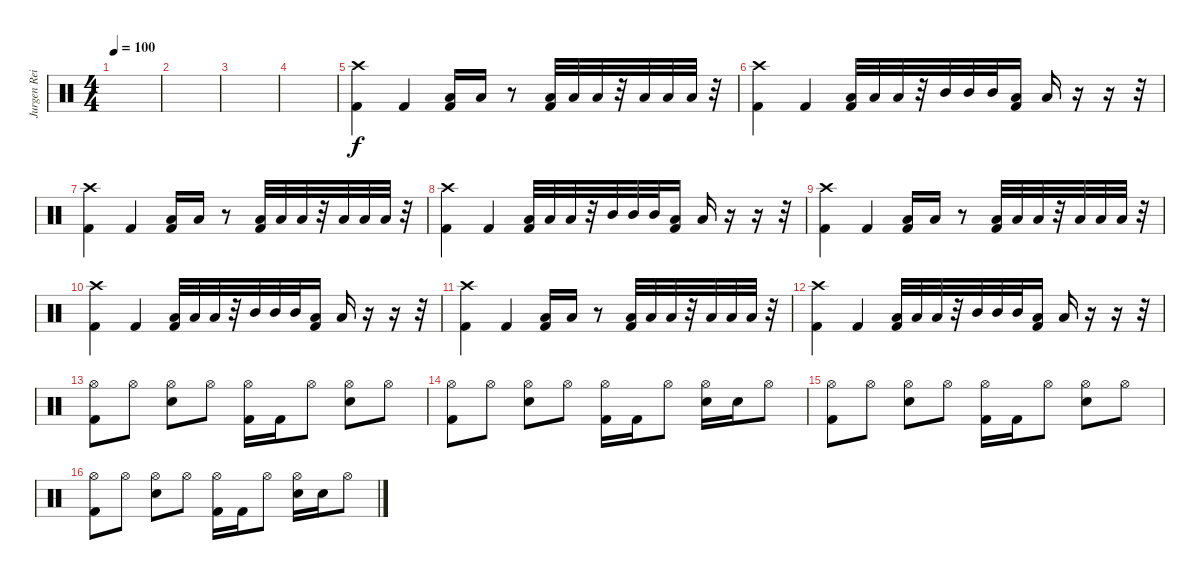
\track ("Jurgen Reil" "Jurgen Rei") {instrument percussion}
\staff {score}
\articulation defaults
\ts (4 4)
\tempo 100
\clef neutral
\ks c
|
|
|
|
("Crash high (hit)" "Kick (hit) 2").4 "Kick (hit) 2".4 ("Low Tom (hit)" "Kick (hit) 2").16 "Low Tom (hit)".16 r.8 ("Low Tom (hit)" "Kick (hit) 2").32 "Low Tom (hit)".32 "Low Tom (hit)".32 r.32 "Low Tom (hit)".32 "Low Tom (hit)".32 "Low Tom (hit)".32 r.32 |
("Crash high (hit)" "Kick (hit) 2").4 "Kick (hit) 2".4 ("Low Tom (hit)" "Kick (hit) 2").32 "Low Tom (hit)".32 "Low Tom (hit)".32 r.32 "Mid Tom (hit)".32 "Mid Tom (hit)".32 "Mid Tom (hit)".32 ("Low Tom (hit)" "Kick (hit) 2").16 "Low Tom (hit)".16 r.16 r.16 r.32 |
("Crash high (hit)" "Kick (hit) 2").4 "Kick (hit) 2".4 ("Low Tom (hit)" "Kick (hit) 2").16 "Low Tom (hit)".16 r.8 ("Low Tom (hit)" "Kick (hit) 2").32 "Low Tom (hit)".32 "Low Tom (hit)".32 r.32 "Low Tom (hit)".32 "Low Tom (hit)".32 "Low Tom (hit)".32 r.32 |
("Crash high (hit)" "Kick (hit) 2").4 "Kick (hit) 2".4 ("Low Tom (hit)" "Kick (hit) 2").32 "Low Tom (hit)".32 "Low Tom (hit)".32 r.32 "Mid Tom (hit)".32 "Mid Tom (hit)".32 "Mid Tom (hit)".32 ("Low Tom (hit)" "Kick (hit) 2").16 "Low Tom (hit)".16 r.16 r.16 r.32 |
("Crash high (hit)" "Kick (hit) 2").4 "Kick (hit) 2".4 ("Low Tom (hit)" "Kick (hit) 2").16 "Low Tom (hit)".16 r.8 ("Low Tom (hit)" "Kick (hit) 2").32 "Low Tom (hit)".32 "Low Tom (hit)".32 r.32 "Low Tom (hit)".32 "Low Tom (hit)".32 "Low Tom (hit)".32 r.32 |
("Crash high (hit)" "Kick (hit) 2").4 "Kick (hit) 2".4 ("Low Tom (hit)" "Kick (hit) 2").32 "Low Tom (hit)".32 "Low Tom (hit)".32 r.32 "Mid Tom (hit)".32 "Mid Tom (hit)".32 "Mid Tom (hit)".32 ("Low Tom (hit)" "Kick (hit) 2").16 "Low Tom (hit)".16 r.16 r.16 r.32 |
("Crash high (hit)" "Kick (hit) 2").4 "Kick (hit) 2".4 ("Low Tom (hit)" "Kick (hit) 2").16 "Low Tom (hit)".16 r.8 ("Low Tom (hit)" "Kick (hit) 2").32 "Low Tom (hit)".32 "Low Tom (hit)".32 r.32 "Low Tom (hit)".32 "Low Tom (hit)".32 "Low Tom (hit)".32 r.32 |
("Crash high (hit)" "Kick (hit) 2").4 "Kick (hit) 2".4 ("Low Tom (hit)" "Kick (hit) 2").32 "Low Tom (hit)".32 "Low Tom (hit)".32 r.32 "Mid Tom (hit)".32 "Mid Tom (hit)".32 "Mid Tom (hit)".32 ("Low Tom (hit)" "Kick (hit) 2").16 "Low Tom (hit)".16 r.16 r.16 r.32 |
("Kick (hit) 2" "Hi-Hat (open)").8 "Hi-Hat (open)".8 ("Hi-Hat (open)" "Snare (hit) 2").8 "Hi-Hat (open)".8 ("Kick (hit) 2" "Hi-Hat (open)").16 "Kick (hit) 2".16 "Hi-Hat (open)".8 ("Snare (hit) 2" "Hi-Hat (open)").8 "Hi-Hat (open)".8 |
("Kick (hit) 2" "Hi-Hat (open)").8 "Hi-Hat (open)".8 ("Hi-Hat (open)" "Snare (hit) 2").8 "Hi-Hat (open)".8 ("Kick (hit) 2" "Hi-Hat (open)").16 "Kick (hit) 2".16 "Hi-Hat (open)".8 ("Snare (hit) 2" "Hi-Hat (open)").16 "Snare (hit) 2".16 "Hi-Hat (open)".8 |
("Kick (hit) 2" "Hi-Hat (open)").8 "Hi-Hat (open)".8 ("Hi-Hat (open)" "Snare (hit) 2").8 "Hi-Hat (open)".8 ("Kick (hit) 2" "Hi-Hat (open)").16 "Kick (hit) 2".16 "Hi-Hat (open)".8 ("Snare (hit) 2" "Hi-Hat (open)").8 "Hi-Hat (open)".8 |
("Kick (hit) 2" "Hi-Hat (open)").8 "Hi-Hat (open)".8 ("Hi-Hat (open)" "Snare (hit) 2").8 "Hi-Hat (open)".8 ("Kick (hit) 2" "Hi-Hat (open)").16 "Kick (hit) 2".16 "Hi-Hat (open)".8 ("Snare (hit) 2" "Hi-Hat (open)").16 "Snare (hit) 2".16 "Hi-Hat (open)".8
